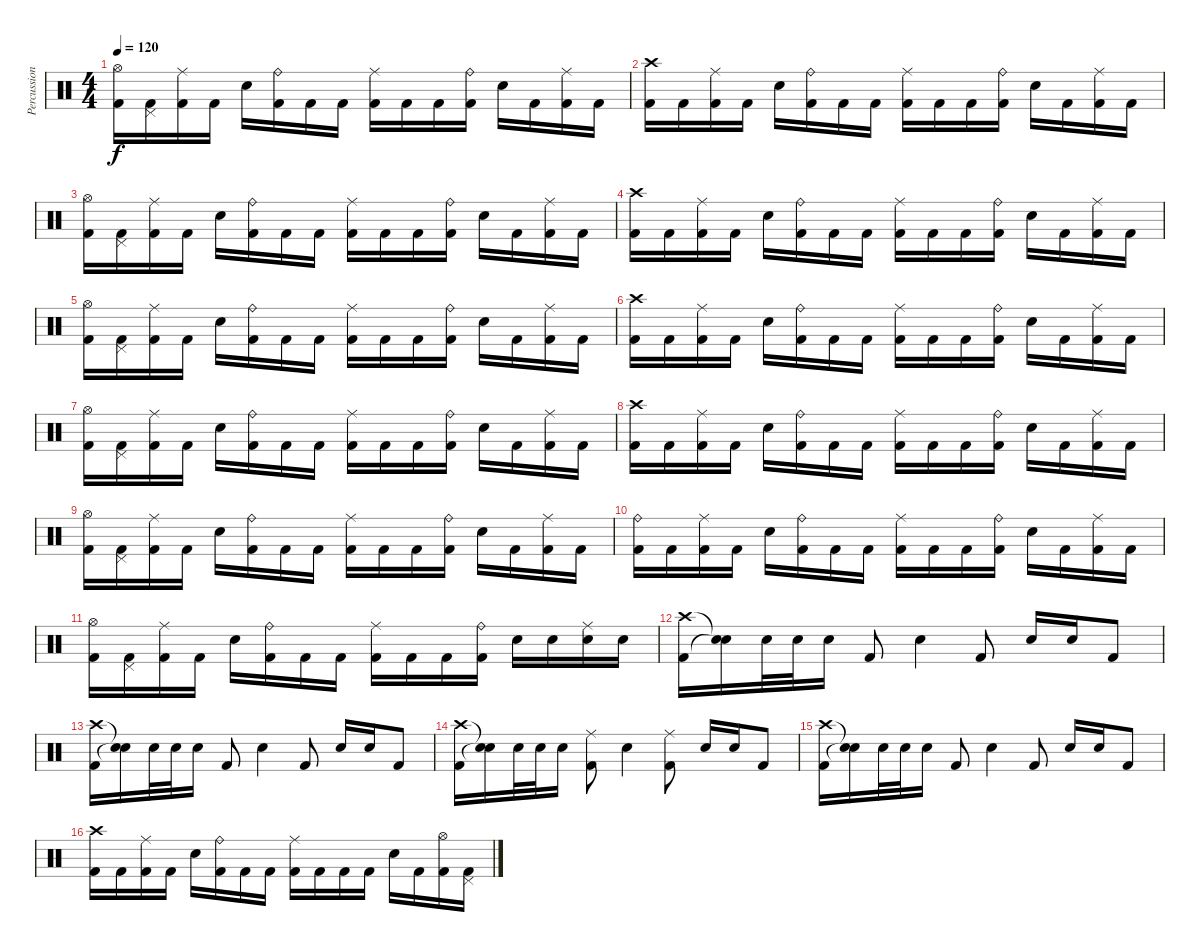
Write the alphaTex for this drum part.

\track ("Percussioni" "Percussion") {instrument percussion}
\staff {score}
\articulation defaults
\ts (4 4)
\tempo 120
\clef neutral
\ks c
("Hi-Hat (open)" "Kick (hit) 2").16{dy f} ("Pedal Hi-Hat (hit)" "Kick (hit) 2").16 ("Ride (middle)" "Kick (hit) 2").16 "Kick (hit) 2".16 "Electric Snare (hit)".16 ("Ride (bell)" "Kick (hit) 2").16 "Kick (hit) 2".16 "Kick (hit) 2".16 ("Ride (middle)" "Kick (hit) 2").16 "Kick (hit) 2".16 "Kick (hit) 2".16 ("Ride (bell)" "Kick (hit) 2").16 "Electric Snare (hit)".16 "Kick (hit) 2".16 ("Ride (middle)" "Kick (hit) 2").16 "Kick (hit) 2".16 |
("Crash high (hit)" "Kick (hit) 2").16 "Kick (hit) 2".16 ("Ride (middle)" "Kick (hit) 2").16 "Kick (hit) 2".16 "Electric Snare (hit)".16 ("Ride (bell)" "Kick (hit) 2").16 "Kick (hit) 2".16 "Kick (hit) 2".16 ("Ride (middle)" "Kick (hit) 2").16 "Kick (hit) 2".16 "Kick (hit) 2".16 ("Ride (bell)" "Kick (hit) 2").16 "Electric Snare (hit)".16 "Kick (hit) 2".16 ("Ride (middle)" "Kick (hit) 2").16 "Kick (hit) 2".16 |
("Hi-Hat (open)" "Kick (hit) 2").16 ("Pedal Hi-Hat (hit)" "Kick (hit) 2").16 ("Ride (middle)" "Kick (hit) 2").16 "Kick (hit) 2".16 "Electric Snare (hit)".16 ("Ride (bell)" "Kick (hit) 2").16 "Kick (hit) 2".16 "Kick (hit) 2".16 ("Ride (middle)" "Kick (hit) 2").16 "Kick (hit) 2".16 "Kick (hit) 2".16 ("Ride (bell)" "Kick (hit) 2").16 "Electric Snare (hit)".16 "Kick (hit) 2".16 ("Ride (middle)" "Kick (hit) 2").16 "Kick (hit) 2".16 |
("Crash high (hit)" "Kick (hit) 2").16 "Kick (hit) 2".16 ("Ride (middle)" "Kick (hit) 2").16 "Kick (hit) 2".16 "Electric Snare (hit)".16 ("Ride (bell)" "Kick (hit) 2").16 "Kick (hit) 2".16 "Kick (hit) 2".16 ("Ride (middle)" "Kick (hit) 2").16 "Kick (hit) 2".16 "Kick (hit) 2".16 ("Ride (bell)" "Kick (hit) 2").16 "Electric Snare (hit)".16 "Kick (hit) 2".16 ("Ride (middle)" "Kick (hit) 2").16 "Kick (hit) 2".16 |
("Hi-Hat (open)" "Kick (hit) 2").16 ("Pedal Hi-Hat (hit)" "Kick (hit) 2").16 ("Ride (middle)" "Kick (hit) 2").16 "Kick (hit) 2".16 "Electric Snare (hit)".16 ("Ride (bell)" "Kick (hit) 2").16 "Kick (hit) 2".16 "Kick (hit) 2".16 ("Ride (middle)" "Kick (hit) 2").16 "Kick (hit) 2".16 "Kick (hit) 2".16 ("Ride (bell)" "Kick (hit) 2").16 "Electric Snare (hit)".16 "Kick (hit) 2".16 ("Ride (middle)" "Kick (hit) 2").16 "Kick (hit) 2".16 |
("Crash high (hit)" "Kick (hit) 2").16 "Kick (hit) 2".16 ("Ride (middle)" "Kick (hit) 2").16 "Kick (hit) 2".16 "Electric Snare (hit)".16 ("Ride (bell)" "Kick (hit) 2").16 "Kick (hit) 2".16 "Kick (hit) 2".16 ("Ride (middle)" "Kick (hit) 2").16 "Kick (hit) 2".16 "Kick (hit) 2".16 ("Ride (bell)" "Kick (hit) 2").16 "Electric Snare (hit)".16 "Kick (hit) 2".16 ("Ride (middle)" "Kick (hit) 2").16 "Kick (hit) 2".16 |
("Hi-Hat (open)" "Kick (hit) 2").16 ("Pedal Hi-Hat (hit)" "Kick (hit) 2").16 ("Ride (middle)" "Kick (hit) 2").16 "Kick (hit) 2".16 "Electric Snare (hit)".16 ("Ride (bell)" "Kick (hit) 2").16 "Kick (hit) 2".16 "Kick (hit) 2".16 ("Ride (middle)" "Kick (hit) 2").16 "Kick (hit) 2".16 "Kick (hit) 2".16 ("Ride (bell)" "Kick (hit) 2").16 "Electric Snare (hit)".16 "Kick (hit) 2".16 ("Ride (middle)" "Kick (hit) 2").16 "Kick (hit) 2".16 |
("Crash high (hit)" "Kick (hit) 2").16 "Kick (hit) 2".16 ("Ride (middle)" "Kick (hit) 2").16 "Kick (hit) 2".16 "Electric Snare (hit)".16 ("Ride (bell)" "Kick (hit) 2").16 "Kick (hit) 2".16 "Kick (hit) 2".16 ("Ride (middle)" "Kick (hit) 2").16 "Kick (hit) 2".16 "Kick (hit) 2".16 ("Ride (bell)" "Kick (hit) 2").16 "Electric Snare (hit)".16 "Kick (hit) 2".16 ("Ride (middle)" "Kick (hit) 2").16 "Kick (hit) 2".16 |
("Hi-Hat (open)" "Kick (hit) 2").16 ("Pedal Hi-Hat (hit)" "Kick (hit) 2").16 ("Ride (middle)" "Kick (hit) 2").16 "Kick (hit) 2".16 "Electric Snare (hit)".16 ("Ride (bell)" "Kick (hit) 2").16 "Kick (hit) 2".16 "Kick (hit) 2".16 ("Ride (middle)" "Kick (hit) 2").16 "Kick (hit) 2".16 "Kick (hit) 2".16 ("Ride (bell)" "Kick (hit) 2").16 "Electric Snare (hit)".16 "Kick (hit) 2".16 ("Ride (middle)" "Kick (hit) 2").16 "Kick (hit) 2".16 |
("Ride (bell)" "Kick (hit) 2").16 "Kick (hit) 2".16 ("Ride (middle)" "Kick (hit) 2").16 "Kick (hit) 2".16 "Electric Snare (hit)".16 ("Ride (bell)" "Kick (hit) 2").16 "Kick (hit) 2".16 "Kick (hit) 2".16 ("Ride (middle)" "Kick (hit) 2").16 "Kick (hit) 2".16 "Kick (hit) 2".16 ("Ride (bell)" "Kick (hit) 2").16 "Electric Snare (hit)".16 "Kick (hit) 2".16 ("Ride (middle)" "Kick (hit) 2").16 "Kick (hit) 2".16 |
("Hi-Hat (open)" "Kick (hit) 2").16 ("Pedal Hi-Hat (hit)" "Kick (hit) 2").16 ("Ride (middle)" "Kick (hit) 2").16 "Kick (hit) 2".16 "Electric Snare (hit)".16 ("Ride (bell)" "Kick (hit) 2").16 "Kick (hit) 2".16 "Kick (hit) 2".16 ("Ride (middle)" "Kick (hit) 2").16 "Kick (hit) 2".16 "Kick (hit) 2".16 ("Ride (bell)" "Kick (hit) 2").16 "Electric Snare (hit)".16 "Electric Snare (hit)".16 ("Ride (middle)" "Electric Snare (hit)").16 "Electric Snare (hit)".16 |
("Crash high (hit)" "Kick (hit) 2").16 ("Snare (hit)"{t} "Snare (hit)"{t}).16 "Electric Snare (hit)".32 "Electric Snare (hit)".32 "Electric Snare (hit)".16 "Kick (hit) 2".8 "Electric Snare (hit)".4 "Kick (hit) 2".8 "Electric Snare (hit)".16 "Electric Snare (hit)".16 "Kick (hit) 2".8 |
("Crash high (hit)" "Kick (hit) 2").16 ("Snare (hit)"{t} "Snare (hit)"{t}).16 "Electric Snare (hit)".32 "Electric Snare (hit)".32 "Electric Snare (hit)".16 "Kick (hit) 2".8 "Electric Snare (hit)".4 "Kick (hit) 2".8 "Electric Snare (hit)".16 "Electric Snare (hit)".16 "Kick (hit) 2".8 |
("Crash high (hit)" "Kick (hit) 2").16 ("Snare (hit)"{t} "Snare (hit)"{t}).16 "Electric Snare (hit)".32 "Electric Snare (hit)".32 "Electric Snare (hit)".16 ("Ride (middle)" "Kick (hit) 2").8 "Electric Snare (hit)".4 ("Ride (middle)" "Kick (hit) 2").8 "Electric Snare (hit)".16 "Electric Snare (hit)".16 "Kick (hit) 2".8 |
("Crash high (hit)" "Kick (hit) 2").16 ("Snare (hit)"{t} "Snare (hit)"{t}).16 "Electric Snare (hit)".32 "Electric Snare (hit)".32 "Electric Snare (hit)".16 "Kick (hit) 2".8 "Electric Snare (hit)".4 "Kick (hit) 2".8 "Electric Snare (hit)".16 "Electric Snare (hit)".16 "Kick (hit) 2".8 |
("Crash high (hit)" "Kick (hit) 2").16 "Kick (hit) 2".16 ("Ride (middle)" "Kick (hit) 2").16 "Kick (hit) 2".16 "Electric Snare (hit)".16 ("Ride (bell)" "Kick (hit) 2").16 "Kick (hit) 2".16 "Kick (hit) 2".16 ("Ride (middle)" "Kick (hit) 2").16 "Kick (hit) 2".16 "Kick (hit) 2".16 "Kick (hit) 2".16 "Electric Snare (hit)".16 "Kick (hit) 2".16 ("Hi-Hat (open)" "Kick (hit) 2").16 ("Pedal Hi-Hat (hit)" "Kick (hit) 2").16
